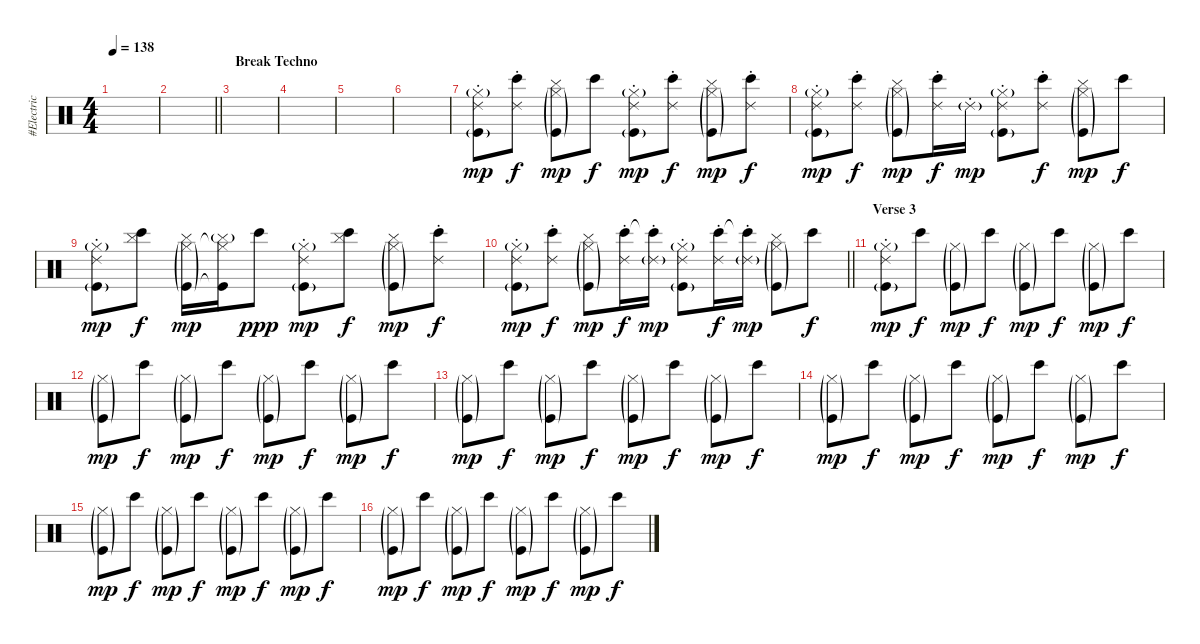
\track ("#Electric Drums" "#Electric ") {instrument percussion}
\staff {score}
\articulation defaults
\ts (4 4)
\tempo 138
\clef neutral
\ks c
|
\barLineRight lightlight
|
\section ("" "Break Techno")
|
|
|
|
("Ride (choke) 2" "Kick (hit)"{g} "Hi-Hat (closed)"{g}).8{dy mp} ("Ride (choke) 2" "Bongo High (hit)").8{dy f} ("Cymbal (hit)" "Kick (hit)"{g} "Hi-Hat (closed)"{g}).8{dy mp} "Bongo High (hit)".8{dy f} ("Ride (choke) 2" "Kick (hit)"{g} "Hi-Hat (closed)"{g}).8{dy mp} ("Ride (choke) 2" "Bongo High (hit)").8{dy f} ("Cymbal (hit)" "Kick (hit)"{g} "Hi-Hat (closed)"{g}).8{dy mp} ("Ride (choke) 2" "Bongo High (hit)").8{dy f} |
("Ride (choke) 2" "Kick (hit)"{g} "Hi-Hat (closed)"{g}).8{dy mp} ("Ride (choke) 2" "Bongo High (hit)").8{dy f} ("Cymbal (hit)" "Kick (hit)"{g} "Hi-Hat (closed)"{g}).8{dy mp} ("Ride (choke) 2" "Bongo High (hit)").16{dy f} "Ride (choke) 2"{g}.16{dy mp} ("Ride (choke) 2" "Kick (hit)"{g} "Hi-Hat (closed)"{g}).8 ("Ride (choke) 2" "Bongo High (hit)").8{dy f} ("Cymbal (hit)" "Kick (hit)"{g} "Hi-Hat (closed)"{g}).8{dy mp} "Bongo High (hit)".8{dy f} |
("Ride (choke) 2" "Kick (hit)"{g} "Hi-Hat (closed)"{g}).8{dy mp} ("Cymbal (hit)" "Bongo High (hit)").8{dy f} ("Cymbal (hit)" "Kick (hit)"{g} "Hi-Hat (closed)"{g}).16{dy mp} ("Cymbal (hit)"{g} "Kick (hit)"{t} "Hi-Hat (closed)"{t}).16 "Bongo High (hit)".8{dy ppp} ("Ride (choke) 2" "Kick (hit)"{g} "Hi-Hat (closed)"{g}).8{dy mp} ("Cymbal (hit)" "Bongo High (hit)").8{dy f} ("Cymbal (hit)" "Kick (hit)"{g} "Hi-Hat (closed)"{g}).8{dy mp} ("Ride (choke) 2" "Bongo High (hit)").8{dy f} |
\barLineRight lightlight
("Ride (choke) 2" "Kick (hit)"{g} "Hi-Hat (closed)"{g}).8{dy mp} ("Ride (choke) 2" "Bongo High (hit)").8{dy f} ("Cymbal (hit)" "Kick (hit)"{g} "Hi-Hat (closed)"{g}).8{dy mp} ("Ride (choke) 2" "Bongo High (hit)").16{dy f} ("Ride (choke) 2"{g} "Bongo High (hit)"{t}).16{dy mp} ("Ride (choke) 2" "Kick (hit)"{g} "Hi-Hat (closed)"{g}).8 ("Ride (choke) 2" "Bongo High (hit)").16{dy f} ("Ride (choke) 2"{g} "Bongo High (hit)"{t}).16{dy mp} ("Cymbal (hit)" "Kick (hit)"{g} "Hi-Hat (closed)"{g}).8 "Bongo High (hit)".8{dy f} |
\section ("" "Verse 3")
("Ride (choke) 2" "Kick (hit)"{g} "Hi-Hat (closed)"{g}).8{dy mp} "Bongo High (hit)".8{dy f} ("Kick (hit)"{g} "Hi-Hat (closed)"{g}).8{dy mp} "Bongo High (hit)".8{dy f} ("Kick (hit)"{g} "Hi-Hat (closed)"{g}).8{dy mp} "Bongo High (hit)".8{dy f} ("Kick (hit)"{g} "Hi-Hat (closed)"{g}).8{dy mp} "Bongo High (hit)".8{dy f} |
("Kick (hit)"{g} "Hi-Hat (closed)"{g}).8{dy mp} "Bongo High (hit)".8{dy f} ("Kick (hit)"{g} "Hi-Hat (closed)"{g}).8{dy mp} "Bongo High (hit)".8{dy f} ("Kick (hit)"{g} "Hi-Hat (closed)"{g}).8{dy mp} "Bongo High (hit)".8{dy f} ("Kick (hit)"{g} "Hi-Hat (closed)"{g}).8{dy mp} "Bongo High (hit)".8{dy f} |
("Kick (hit)"{g} "Hi-Hat (closed)"{g}).8{dy mp} "Bongo High (hit)".8{dy f} ("Kick (hit)"{g} "Hi-Hat (closed)"{g}).8{dy mp} "Bongo High (hit)".8{dy f} ("Kick (hit)"{g} "Hi-Hat (closed)"{g}).8{dy mp} "Bongo High (hit)".8{dy f} ("Kick (hit)"{g} "Hi-Hat (closed)"{g}).8{dy mp} "Bongo High (hit)".8{dy f} |
("Kick (hit)"{g} "Hi-Hat (closed)"{g}).8{dy mp} "Bongo High (hit)".8{dy f} ("Kick (hit)"{g} "Hi-Hat (closed)"{g}).8{dy mp} "Bongo High (hit)".8{dy f} ("Kick (hit)"{g} "Hi-Hat (closed)"{g}).8{dy mp} "Bongo High (hit)".8{dy f} ("Kick (hit)"{g} "Hi-Hat (closed)"{g}).8{dy mp} "Bongo High (hit)".8{dy f} |
("Kick (hit)"{g} "Hi-Hat (closed)"{g}).8{dy mp} "Bongo High (hit)".8{dy f} ("Kick (hit)"{g} "Hi-Hat (closed)"{g}).8{dy mp} "Bongo High (hit)".8{dy f} ("Kick (hit)"{g} "Hi-Hat (closed)"{g}).8{dy mp} "Bongo High (hit)".8{dy f} ("Kick (hit)"{g} "Hi-Hat (closed)"{g}).8{dy mp} "Bongo High (hit)".8{dy f} |
("Kick (hit)"{g} "Hi-Hat (closed)"{g}).8{dy mp} "Bongo High (hit)".8{dy f} ("Kick (hit)"{g} "Hi-Hat (closed)"{g}).8{dy mp} "Bongo High (hit)".8{dy f} ("Kick (hit)"{g} "Hi-Hat (closed)"{g}).8{dy mp} "Bongo High (hit)".8{dy f} ("Kick (hit)"{g} "Hi-Hat (closed)"{g}).8{dy mp} "Bongo High (hit)".8{dy f}
